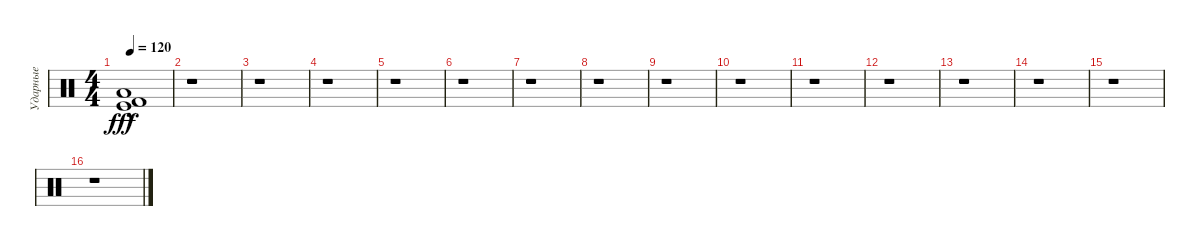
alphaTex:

\track ("Ударные" "Ударные") {instrument percussion}
\staff {score}
\articulation defaults
\ts (4 4)
\tempo 120
\clef neutral
\ks c
("Kick (hit)"{hac} "Kick (hit) 2"{hac} "Low Floor Tom (hit)"{hac}).1{dy fff} |
r.1 |
r.1 |
r.1 |
r.1 |
r.1 |
r.1 |
r.1 |
r.1 |
r.1 |
r.1 |
r.1 |
r.1 |
r.1 |
r.1 |
r.1
